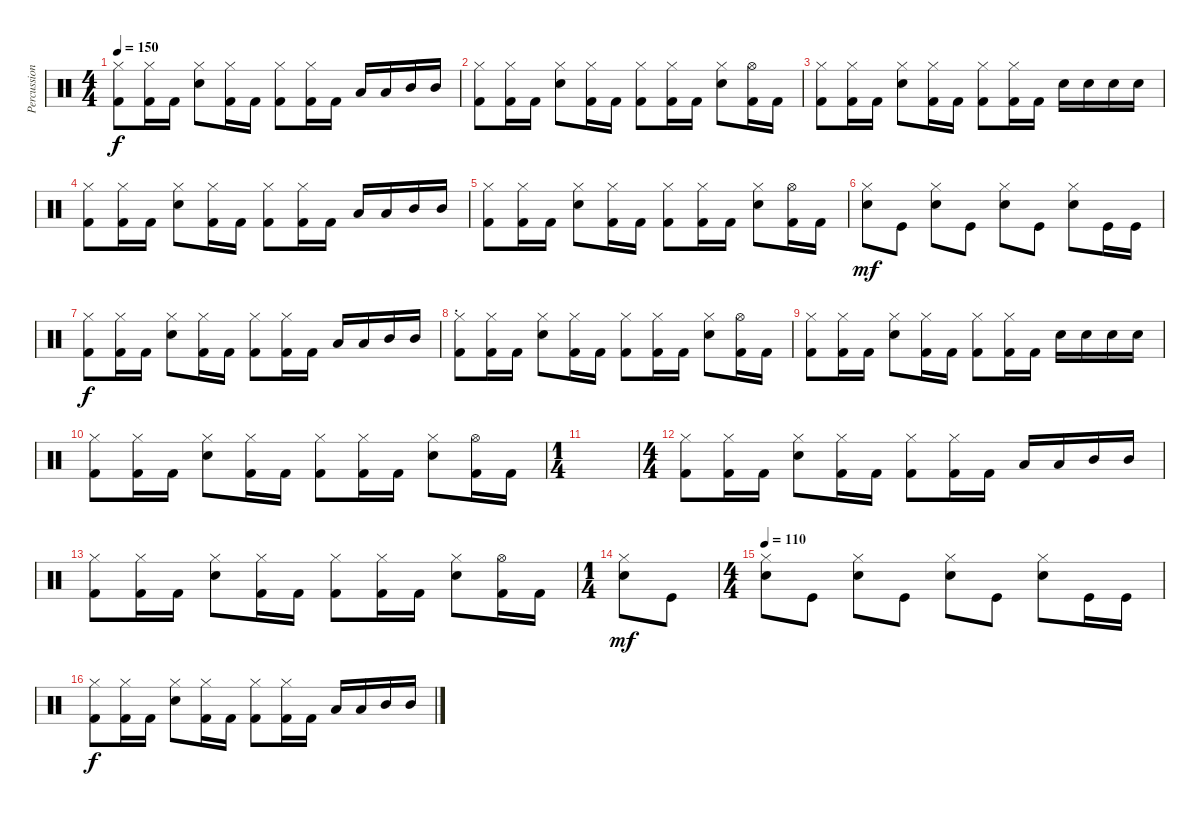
\track ("Percussions" "Percussion") {instrument percussion}
\staff {score}
\articulation defaults
\ts (4 4)
\tempo 150
\clef neutral
\ks c
("Hi-Hat (closed)" "Kick (hit) 2").8{dy f} ("Hi-Hat (closed)" "Kick (hit) 2").16 "Kick (hit) 2".16 ("Hi-Hat (closed)" "Snare (hit) 2").8 ("Hi-Hat (closed)" "Kick (hit) 2").16 "Kick (hit) 2".16 ("Hi-Hat (closed)" "Kick (hit) 2").8 ("Hi-Hat (closed)" "Kick (hit) 2").16 "Kick (hit) 2".16 "Low Tom (hit)".16 "Low Tom (hit)".16 "Mid Tom (hit)".16 "Mid Tom (hit)".16 |
("Hi-Hat (closed)" "Kick (hit) 2").8 ("Hi-Hat (closed)" "Kick (hit) 2").16 "Kick (hit) 2".16 ("Hi-Hat (closed)" "Snare (hit) 2").8 ("Hi-Hat (closed)" "Kick (hit) 2").16 "Kick (hit) 2".16 ("Hi-Hat (closed)" "Kick (hit) 2").8 ("Hi-Hat (closed)" "Kick (hit) 2").16 "Kick (hit) 2".16 ("Hi-Hat (closed)" "Snare (hit) 2").8 ("Hi-Hat (open)" "Kick (hit) 2").16 "Kick (hit) 2".16 |
("Hi-Hat (closed)" "Kick (hit) 2").8 ("Hi-Hat (closed)" "Kick (hit) 2").16 "Kick (hit) 2".16 ("Hi-Hat (closed)" "Snare (hit) 2").8 ("Hi-Hat (closed)" "Kick (hit) 2").16 "Kick (hit) 2".16 ("Hi-Hat (closed)" "Kick (hit) 2").8 ("Hi-Hat (closed)" "Kick (hit) 2").16 "Kick (hit) 2".16 "Snare (hit) 2".16 "Snare (hit) 2".16 "Snare (hit) 2".16 "Snare (hit) 2".16 |
("Hi-Hat (closed)" "Kick (hit) 2").8 ("Hi-Hat (closed)" "Kick (hit) 2").16 "Kick (hit) 2".16 ("Hi-Hat (closed)" "Snare (hit) 2").8 ("Hi-Hat (closed)" "Kick (hit) 2").16 "Kick (hit) 2".16 ("Hi-Hat (closed)" "Kick (hit) 2").8 ("Hi-Hat (closed)" "Kick (hit) 2").16 "Kick (hit) 2".16 "Low Tom (hit)".16 "Low Tom (hit)".16 "Mid Tom (hit)".16 "Mid Tom (hit)".16 |
("Hi-Hat (closed)" "Kick (hit) 2").8 ("Hi-Hat (closed)" "Kick (hit) 2").16 "Kick (hit) 2".16 ("Hi-Hat (closed)" "Snare (hit) 2").8 ("Hi-Hat (closed)" "Kick (hit) 2").16 "Kick (hit) 2".16 ("Hi-Hat (closed)" "Kick (hit) 2").8 ("Hi-Hat (closed)" "Kick (hit) 2").16 "Kick (hit) 2".16 ("Hi-Hat (closed)" "Snare (hit) 2").8 ("Hi-Hat (open)" "Kick (hit) 2").16 "Kick (hit) 2".16 |
("Hi-Hat (closed)" "Snare (hit) 2").8{dy mf} "Kick (hit)".8 ("Hi-Hat (closed)" "Snare (hit) 2").8 "Kick (hit)".8 ("Hi-Hat (closed)" "Snare (hit) 2").8 "Kick (hit)".8 ("Hi-Hat (closed)" "Snare (hit) 2").8 "Kick (hit)".16 "Kick (hit)".16 |
("Hi-Hat (closed)" "Kick (hit) 2").8{dy f} ("Hi-Hat (closed)" "Kick (hit) 2").16 "Kick (hit) 2".16 ("Hi-Hat (closed)" "Snare (hit) 2").8 ("Hi-Hat (closed)" "Kick (hit) 2").16 "Kick (hit) 2".16 ("Hi-Hat (closed)" "Kick (hit) 2").8 ("Hi-Hat (closed)" "Kick (hit) 2").16 "Kick (hit) 2".16 "Low Tom (hit)".16 "Low Tom (hit)".16 "Mid Tom (hit)".16 "Mid Tom (hit)".16 |
\section ("" ".")
("Hi-Hat (closed)" "Kick (hit) 2").8 ("Hi-Hat (closed)" "Kick (hit) 2").16 "Kick (hit) 2".16 ("Hi-Hat (closed)" "Snare (hit) 2").8 ("Hi-Hat (closed)" "Kick (hit) 2").16 "Kick (hit) 2".16 ("Hi-Hat (closed)" "Kick (hit) 2").8 ("Hi-Hat (closed)" "Kick (hit) 2").16 "Kick (hit) 2".16 ("Hi-Hat (closed)" "Snare (hit) 2").8 ("Hi-Hat (open)" "Kick (hit) 2").16 "Kick (hit) 2".16 |
("Hi-Hat (closed)" "Kick (hit) 2").8 ("Hi-Hat (closed)" "Kick (hit) 2").16 "Kick (hit) 2".16 ("Hi-Hat (closed)" "Snare (hit) 2").8 ("Hi-Hat (closed)" "Kick (hit) 2").16 "Kick (hit) 2".16 ("Hi-Hat (closed)" "Kick (hit) 2").8 ("Hi-Hat (closed)" "Kick (hit) 2").16 "Kick (hit) 2".16 "Snare (hit) 2".16 "Snare (hit) 2".16 "Snare (hit) 2".16 "Snare (hit) 2".16 |
("Hi-Hat (closed)" "Kick (hit) 2").8 ("Hi-Hat (closed)" "Kick (hit) 2").16 "Kick (hit) 2".16 ("Hi-Hat (closed)" "Snare (hit) 2").8 ("Hi-Hat (closed)" "Kick (hit) 2").16 "Kick (hit) 2".16 ("Hi-Hat (closed)" "Kick (hit) 2").8 ("Hi-Hat (closed)" "Kick (hit) 2").16 "Kick (hit) 2".16 ("Hi-Hat (closed)" "Snare (hit) 2").8 ("Hi-Hat (open)" "Kick (hit) 2").16 "Kick (hit) 2".16 |
\ts (1 4)
|
\ts (4 4)
("Hi-Hat (closed)" "Kick (hit) 2").8 ("Hi-Hat (closed)" "Kick (hit) 2").16 "Kick (hit) 2".16 ("Hi-Hat (closed)" "Snare (hit) 2").8 ("Hi-Hat (closed)" "Kick (hit) 2").16 "Kick (hit) 2".16 ("Hi-Hat (closed)" "Kick (hit) 2").8 ("Hi-Hat (closed)" "Kick (hit) 2").16 "Kick (hit) 2".16 "Low Tom (hit)".16 "Low Tom (hit)".16 "Mid Tom (hit)".16 "Mid Tom (hit)".16 |
("Hi-Hat (closed)" "Kick (hit) 2").8 ("Hi-Hat (closed)" "Kick (hit) 2").16 "Kick (hit) 2".16 ("Hi-Hat (closed)" "Snare (hit) 2").8 ("Hi-Hat (closed)" "Kick (hit) 2").16 "Kick (hit) 2".16 ("Hi-Hat (closed)" "Kick (hit) 2").8 ("Hi-Hat (closed)" "Kick (hit) 2").16 "Kick (hit) 2".16 ("Hi-Hat (closed)" "Snare (hit) 2").8 ("Hi-Hat (open)" "Kick (hit) 2").16 "Kick (hit) 2".16 |
\ts (1 4)
("Hi-Hat (closed)" "Snare (hit) 2").8{dy mf} "Kick (hit)".8 |
\ts (4 4)
\tempo 110
("Hi-Hat (closed)" "Snare (hit) 2").8 "Kick (hit)".8 ("Hi-Hat (closed)" "Snare (hit) 2").8 "Kick (hit)".8 ("Hi-Hat (closed)" "Snare (hit) 2").8 "Kick (hit)".8 ("Hi-Hat (closed)" "Snare (hit) 2").8 "Kick (hit)".16 "Kick (hit)".16 |
("Hi-Hat (closed)" "Kick (hit) 2").8{dy f} ("Hi-Hat (closed)" "Kick (hit) 2").16 "Kick (hit) 2".16 ("Hi-Hat (closed)" "Snare (hit) 2").8 ("Hi-Hat (closed)" "Kick (hit) 2").16 "Kick (hit) 2".16 ("Hi-Hat (closed)" "Kick (hit) 2").8 ("Hi-Hat (closed)" "Kick (hit) 2").16 "Kick (hit) 2".16 "Low Tom (hit)".16 "Low Tom (hit)".16 "Mid Tom (hit)".16 "Mid Tom (hit)".16
